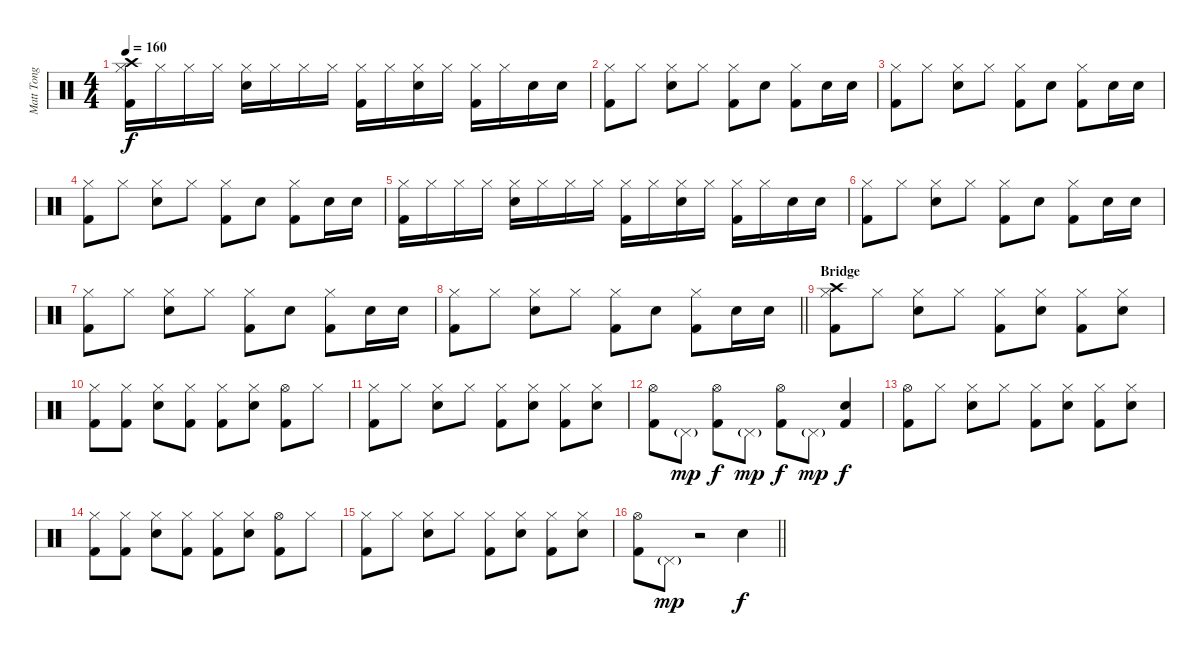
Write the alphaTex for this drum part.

\track ("Matt Tong" "Matt Tong") {instrument percussion}
\staff {score}
\articulation defaults
\ts (4 4)
\tempo 160
\clef neutral
\ks c
("Crash high (hit)" "Hi-Hat (closed)" "Kick (hit) 2").16{dy f} "Hi-Hat (closed)".16 "Hi-Hat (closed)".16 "Hi-Hat (closed)".16 ("Hi-Hat (closed)" "Electric Snare (hit)").16 "Hi-Hat (closed)".16 "Hi-Hat (closed)".16 "Hi-Hat (closed)".16 ("Hi-Hat (closed)" "Kick (hit) 2").16 "Hi-Hat (closed)".16 ("Hi-Hat (closed)" "Electric Snare (hit)").16 "Hi-Hat (closed)".16 ("Hi-Hat (closed)" "Kick (hit) 2").16 "Hi-Hat (closed)".16 "Electric Snare (hit)".16 "Electric Snare (hit)".16 |
("Hi-Hat (closed)" "Kick (hit) 2").8 "Hi-Hat (closed)".8 ("Hi-Hat (closed)" "Electric Snare (hit)").8 "Hi-Hat (closed)".8 ("Hi-Hat (closed)" "Kick (hit) 2").8 "Electric Snare (hit)".8 ("Hi-Hat (closed)" "Kick (hit) 2").8 "Electric Snare (hit)".16 "Electric Snare (hit)".16 |
("Hi-Hat (closed)" "Kick (hit) 2").8 "Hi-Hat (closed)".8 ("Hi-Hat (closed)" "Electric Snare (hit)").8 "Hi-Hat (closed)".8 ("Hi-Hat (closed)" "Kick (hit) 2").8 "Electric Snare (hit)".8 ("Hi-Hat (closed)" "Kick (hit) 2").8 "Electric Snare (hit)".16 "Electric Snare (hit)".16 |
("Hi-Hat (closed)" "Kick (hit) 2").8 "Hi-Hat (closed)".8 ("Hi-Hat (closed)" "Electric Snare (hit)").8 "Hi-Hat (closed)".8 ("Hi-Hat (closed)" "Kick (hit) 2").8 "Electric Snare (hit)".8 ("Hi-Hat (closed)" "Kick (hit) 2").8 "Electric Snare (hit)".16 "Electric Snare (hit)".16 |
("Hi-Hat (closed)" "Kick (hit) 2").16 "Hi-Hat (closed)".16 "Hi-Hat (closed)".16 "Hi-Hat (closed)".16 ("Hi-Hat (closed)" "Electric Snare (hit)").16 "Hi-Hat (closed)".16 "Hi-Hat (closed)".16 "Hi-Hat (closed)".16 ("Hi-Hat (closed)" "Kick (hit) 2").16 "Hi-Hat (closed)".16 ("Hi-Hat (closed)" "Electric Snare (hit)").16 "Hi-Hat (closed)".16 ("Hi-Hat (closed)" "Kick (hit) 2").16 "Hi-Hat (closed)".16 "Electric Snare (hit)".16 "Electric Snare (hit)".16 |
("Hi-Hat (closed)" "Kick (hit) 2").8 "Hi-Hat (closed)".8 ("Hi-Hat (closed)" "Electric Snare (hit)").8 "Hi-Hat (closed)".8 ("Hi-Hat (closed)" "Kick (hit) 2").8 "Electric Snare (hit)".8 ("Hi-Hat (closed)" "Kick (hit) 2").8 "Electric Snare (hit)".16 "Electric Snare (hit)".16 |
("Hi-Hat (closed)" "Kick (hit) 2").8 "Hi-Hat (closed)".8 ("Hi-Hat (closed)" "Electric Snare (hit)").8 "Hi-Hat (closed)".8 ("Hi-Hat (closed)" "Kick (hit) 2").8 "Electric Snare (hit)".8 ("Hi-Hat (closed)" "Kick (hit) 2").8 "Electric Snare (hit)".16 "Electric Snare (hit)".16 |
\barLineRight lightlight
("Hi-Hat (closed)" "Kick (hit) 2").8 "Hi-Hat (closed)".8 ("Hi-Hat (closed)" "Electric Snare (hit)").8 "Hi-Hat (closed)".8 ("Hi-Hat (closed)" "Kick (hit) 2").8 "Electric Snare (hit)".8 ("Hi-Hat (closed)" "Kick (hit) 2").8 "Electric Snare (hit)".16 "Electric Snare (hit)".16 |
\section ("" "Bridge ")
("Crash high (hit)" "Hi-Hat (closed)" "Kick (hit) 2").8 "Hi-Hat (closed)".8 ("Hi-Hat (closed)" "Snare (hit) 2").8 "Hi-Hat (closed)".8 ("Hi-Hat (closed)" "Kick (hit) 2").8 ("Hi-Hat (closed)" "Snare (hit) 2").8 ("Hi-Hat (closed)" "Kick (hit) 2").8 ("Hi-Hat (closed)" "Snare (hit) 2").8 |
("Hi-Hat (closed)" "Kick (hit) 2").8 ("Hi-Hat (closed)" "Kick (hit) 2").8 ("Hi-Hat (closed)" "Snare (hit) 2").8 ("Hi-Hat (closed)" "Kick (hit) 2").8 ("Hi-Hat (closed)" "Kick (hit) 2").8 ("Hi-Hat (closed)" "Snare (hit) 2").8 ("Hi-Hat (open)" "Kick (hit) 2").8 "Hi-Hat (closed)".8 |
("Hi-Hat (closed)" "Kick (hit) 2").8 "Hi-Hat (closed)".8 ("Hi-Hat (closed)" "Snare (hit) 2").8 "Hi-Hat (closed)".8 ("Hi-Hat (closed)" "Kick (hit) 2").8 ("Hi-Hat (closed)" "Snare (hit) 2").8 ("Hi-Hat (closed)" "Kick (hit) 2").8 ("Hi-Hat (closed)" "Snare (hit) 2").8 |
("Hi-Hat (open)" "Kick (hit) 2").8 "Pedal Hi-Hat (hit)"{g}.8{dy mp} ("Hi-Hat (open)" "Kick (hit) 2").8{dy f} "Pedal Hi-Hat (hit)"{g}.8{dy mp} ("Hi-Hat (open)" "Kick (hit) 2").8{dy f} "Pedal Hi-Hat (hit)"{g}.8{dy mp} ("Snare (hit) 2" "Kick (hit) 2").4{dy f} |
("Hi-Hat (open)" "Kick (hit) 2").8 "Hi-Hat (closed)".8 ("Hi-Hat (closed)" "Snare (hit) 2").8 "Hi-Hat (closed)".8 ("Hi-Hat (closed)" "Kick (hit) 2").8 ("Hi-Hat (closed)" "Snare (hit) 2").8 ("Hi-Hat (closed)" "Kick (hit) 2").8 ("Hi-Hat (closed)" "Snare (hit) 2").8 |
("Hi-Hat (closed)" "Kick (hit) 2").8 ("Hi-Hat (closed)" "Kick (hit) 2").8 ("Hi-Hat (closed)" "Snare (hit) 2").8 ("Hi-Hat (closed)" "Kick (hit) 2").8 ("Hi-Hat (closed)" "Kick (hit) 2").8 ("Hi-Hat (closed)" "Snare (hit) 2").8 ("Hi-Hat (open)" "Kick (hit) 2").8 "Hi-Hat (closed)".8 |
("Hi-Hat (closed)" "Kick (hit) 2").8 "Hi-Hat (closed)".8 ("Hi-Hat (closed)" "Snare (hit) 2").8 "Hi-Hat (closed)".8 ("Hi-Hat (closed)" "Kick (hit) 2").8 ("Hi-Hat (closed)" "Snare (hit) 2").8 ("Hi-Hat (closed)" "Kick (hit) 2").8 ("Hi-Hat (closed)" "Snare (hit) 2").8 |
\barLineRight lightlight
("Hi-Hat (open)" "Kick (hit) 2").8 "Pedal Hi-Hat (hit)"{g}.8{dy mp} r.2 "Snare (hit) 2".4{dy f}
